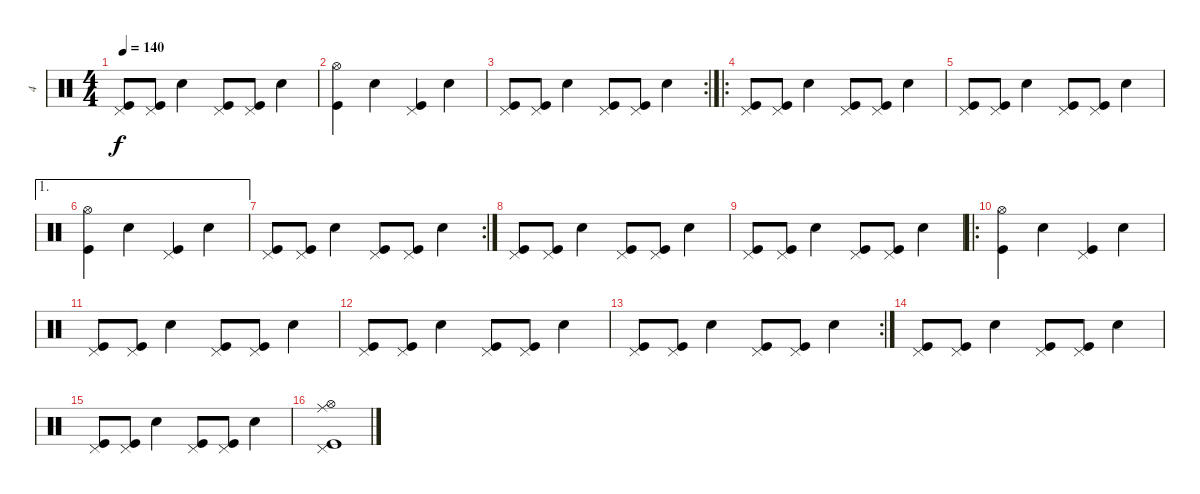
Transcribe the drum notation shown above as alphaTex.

\track ("4" "4") {instrument percussion}
\staff {score}
\articulation defaults
\ts (4 4)
\tempo 140
\clef neutral
\ks c
("Pedal Hi-Hat (hit)" "Kick (hit)").8{dy f} ("Pedal Hi-Hat (hit)" "Kick (hit)").8 "Snare (hit) 2".4 ("Pedal Hi-Hat (hit)" "Kick (hit)").8 ("Pedal Hi-Hat (hit)" "Kick (hit)").8 "Snare (hit) 2".4 |
("Hi-Hat (open)" "Kick (hit)").4 "Snare (hit) 2".4 ("Pedal Hi-Hat (hit)" "Kick (hit)").4 "Snare (hit) 2".4 |
\rc 2
("Pedal Hi-Hat (hit)" "Kick (hit)").8 ("Pedal Hi-Hat (hit)" "Kick (hit)").8 "Snare (hit) 2".4 ("Pedal Hi-Hat (hit)" "Kick (hit)").8 ("Pedal Hi-Hat (hit)" "Kick (hit)").8 "Snare (hit) 2".4 |
\ro
("Pedal Hi-Hat (hit)" "Kick (hit)").8 ("Pedal Hi-Hat (hit)" "Kick (hit)").8 "Snare (hit) 2".4 ("Pedal Hi-Hat (hit)" "Kick (hit)").8 ("Pedal Hi-Hat (hit)" "Kick (hit)").8 "Snare (hit) 2".4 |
("Pedal Hi-Hat (hit)" "Kick (hit)").8 ("Pedal Hi-Hat (hit)" "Kick (hit)").8 "Snare (hit) 2".4 ("Pedal Hi-Hat (hit)" "Kick (hit)").8 ("Pedal Hi-Hat (hit)" "Kick (hit)").8 "Snare (hit) 2".4 |
\ae 1
("Hi-Hat (open)" "Kick (hit)").4 "Snare (hit) 2".4 ("Pedal Hi-Hat (hit)" "Kick (hit)").4 "Snare (hit) 2".4 |
\rc 2
("Pedal Hi-Hat (hit)" "Kick (hit)").8 ("Pedal Hi-Hat (hit)" "Kick (hit)").8 "Snare (hit) 2".4 ("Pedal Hi-Hat (hit)" "Kick (hit)").8 ("Pedal Hi-Hat (hit)" "Kick (hit)").8 "Snare (hit) 2".4 |
("Pedal Hi-Hat (hit)" "Kick (hit)").8 ("Pedal Hi-Hat (hit)" "Kick (hit)").8 "Snare (hit) 2".4 ("Pedal Hi-Hat (hit)" "Kick (hit)").8 ("Pedal Hi-Hat (hit)" "Kick (hit)").8 "Snare (hit) 2".4 |
("Pedal Hi-Hat (hit)" "Kick (hit)").8 ("Pedal Hi-Hat (hit)" "Kick (hit)").8 "Snare (hit) 2".4 ("Pedal Hi-Hat (hit)" "Kick (hit)").8 ("Pedal Hi-Hat (hit)" "Kick (hit)").8 "Snare (hit) 2".4 |
\ro
("Hi-Hat (open)" "Kick (hit)").4 "Snare (hit) 2".4 ("Pedal Hi-Hat (hit)" "Kick (hit)").4 "Snare (hit) 2".4 |
("Pedal Hi-Hat (hit)" "Kick (hit)").8 ("Pedal Hi-Hat (hit)" "Kick (hit)").8 "Snare (hit) 2".4 ("Pedal Hi-Hat (hit)" "Kick (hit)").8 ("Pedal Hi-Hat (hit)" "Kick (hit)").8 "Snare (hit) 2".4 |
("Pedal Hi-Hat (hit)" "Kick (hit)").8 ("Pedal Hi-Hat (hit)" "Kick (hit)").8 "Snare (hit) 2".4 ("Pedal Hi-Hat (hit)" "Kick (hit)").8 ("Pedal Hi-Hat (hit)" "Kick (hit)").8 "Snare (hit) 2".4 |
\rc 2
("Pedal Hi-Hat (hit)" "Kick (hit)").8 ("Pedal Hi-Hat (hit)" "Kick (hit)").8 "Snare (hit) 2".4 ("Pedal Hi-Hat (hit)" "Kick (hit)").8 ("Pedal Hi-Hat (hit)" "Kick (hit)").8 "Snare (hit) 2".4 |
("Pedal Hi-Hat (hit)" "Kick (hit)").8 ("Pedal Hi-Hat (hit)" "Kick (hit)").8 "Snare (hit) 2".4 ("Pedal Hi-Hat (hit)" "Kick (hit)").8 ("Pedal Hi-Hat (hit)" "Kick (hit)").8 "Snare (hit) 2".4 |
("Pedal Hi-Hat (hit)" "Kick (hit)").8 ("Pedal Hi-Hat (hit)" "Kick (hit)").8 "Snare (hit) 2".4 ("Pedal Hi-Hat (hit)" "Kick (hit)").8 ("Pedal Hi-Hat (hit)" "Kick (hit)").8 "Snare (hit) 2".4 |
("Ride (middle)" "Pedal Hi-Hat (hit)" "Hi-Hat (open)" "Kick (hit)").1
